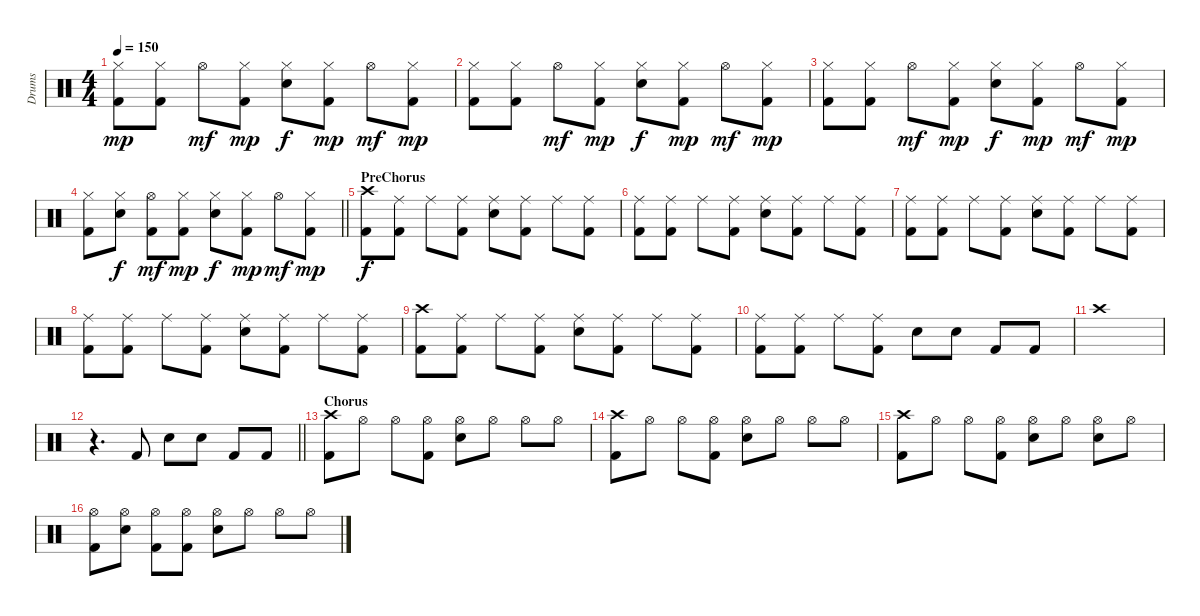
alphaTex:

\track ("Drums" "Drums") {instrument percussion}
\staff {score}
\articulation defaults
\ts (4 4)
\tempo 150
\clef neutral
\ks c
("Hi-Hat (closed)" "Kick (hit) 2").8{dy mp} ("Hi-Hat (closed)" "Kick (hit) 2").8 "Hi-Hat (open)".8{dy mf} ("Hi-Hat (closed)" "Kick (hit) 2").8{dy mp} ("Hi-Hat (closed)" "Electric Snare (hit)").8{dy f} ("Hi-Hat (closed)" "Kick (hit) 2").8{dy mp} "Hi-Hat (open)".8{dy mf} ("Hi-Hat (closed)" "Kick (hit) 2").8{dy mp} |
("Hi-Hat (closed)" "Kick (hit) 2").8 ("Hi-Hat (closed)" "Kick (hit) 2").8 "Hi-Hat (open)".8{dy mf} ("Hi-Hat (closed)" "Kick (hit) 2").8{dy mp} ("Hi-Hat (closed)" "Electric Snare (hit)").8{dy f} ("Hi-Hat (closed)" "Kick (hit) 2").8{dy mp} "Hi-Hat (open)".8{dy mf} ("Hi-Hat (closed)" "Kick (hit) 2").8{dy mp} |
("Hi-Hat (closed)" "Kick (hit) 2").8 ("Hi-Hat (closed)" "Kick (hit) 2").8 "Hi-Hat (open)".8{dy mf} ("Hi-Hat (closed)" "Kick (hit) 2").8{dy mp} ("Hi-Hat (closed)" "Electric Snare (hit)").8{dy f} ("Hi-Hat (closed)" "Kick (hit) 2").8{dy mp} "Hi-Hat (open)".8{dy mf} ("Hi-Hat (closed)" "Kick (hit) 2").8{dy mp} |
\barLineRight lightlight
("Hi-Hat (closed)" "Kick (hit) 2").8 ("Hi-Hat (closed)" "Electric Snare (hit)").8{dy f} ("Hi-Hat (open)" "Kick (hit) 2").8{dy mf} ("Hi-Hat (closed)" "Kick (hit) 2").8{dy mp} ("Hi-Hat (closed)" "Electric Snare (hit)").8{dy f} ("Hi-Hat (closed)" "Kick (hit) 2").8{dy mp} "Hi-Hat (open)".8{dy mf} ("Hi-Hat (closed)" "Kick (hit) 2").8{dy mp} |
\section ("" "PreChorus")
("Crash high (hit)" "Kick (hit) 2").8{dy f} ("Ride (middle)" "Kick (hit) 2").8 "Ride (middle)".8 ("Ride (middle)" "Kick (hit) 2").8 ("Ride (middle)" "Electric Snare (hit)").8 ("Ride (middle)" "Kick (hit) 2").8 "Ride (middle)".8 ("Ride (middle)" "Kick (hit) 2").8 |
("Ride (middle)" "Kick (hit) 2").8 ("Ride (middle)" "Kick (hit) 2").8 "Ride (middle)".8 ("Ride (middle)" "Kick (hit) 2").8 ("Ride (middle)" "Electric Snare (hit)").8 ("Ride (middle)" "Kick (hit) 2").8 "Ride (middle)".8 ("Ride (middle)" "Kick (hit) 2").8 |
("Ride (middle)" "Kick (hit) 2").8 ("Ride (middle)" "Kick (hit) 2").8 "Ride (middle)".8 ("Ride (middle)" "Kick (hit) 2").8 ("Ride (middle)" "Electric Snare (hit)").8 ("Ride (middle)" "Kick (hit) 2").8 "Ride (middle)".8 ("Ride (middle)" "Kick (hit) 2").8 |
("Ride (middle)" "Kick (hit) 2").8 ("Ride (middle)" "Kick (hit) 2").8 "Ride (middle)".8 ("Ride (middle)" "Kick (hit) 2").8 ("Ride (middle)" "Electric Snare (hit)").8 ("Ride (middle)" "Kick (hit) 2").8 "Ride (middle)".8 ("Ride (middle)" "Kick (hit) 2").8 |
("Crash high (hit)" "Kick (hit) 2").8 ("Ride (middle)" "Kick (hit) 2").8 "Ride (middle)".8 ("Ride (middle)" "Kick (hit) 2").8 ("Ride (middle)" "Electric Snare (hit)").8 ("Ride (middle)" "Kick (hit) 2").8 "Ride (middle)".8 ("Ride (middle)" "Kick (hit) 2").8 |
("Ride (middle)" "Kick (hit) 2").8 ("Ride (middle)" "Kick (hit) 2").8 "Ride (middle)".8 ("Ride (middle)" "Kick (hit) 2").8 "Electric Snare (hit)".8 "Electric Snare (hit)".8 "Kick (hit) 2".8 "Kick (hit) 2".8 |
"Crash high (hit)".1 |
\barLineRight lightlight
r.4{d} "Kick (hit) 2".8 "Electric Snare (hit)".8 "Electric Snare (hit)".8 "Kick (hit) 2".8 "Kick (hit) 2".8 |
\section ("" "Chorus")
("Crash high (hit)" "Kick (hit) 2").8 "Hi-Hat (open)".8 "Hi-Hat (open)".8 ("Hi-Hat (open)" "Kick (hit) 2").8 ("Hi-Hat (open)" "Electric Snare (hit)").8 "Hi-Hat (open)".8 "Hi-Hat (open)".8 "Hi-Hat (open)".8 |
("Crash high (hit)" "Kick (hit) 2").8 "Hi-Hat (open)".8 "Hi-Hat (open)".8 ("Hi-Hat (open)" "Kick (hit) 2").8 ("Hi-Hat (open)" "Electric Snare (hit)").8 "Hi-Hat (open)".8 "Hi-Hat (open)".8 "Hi-Hat (open)".8 |
("Crash high (hit)" "Kick (hit) 2").8 "Hi-Hat (open)".8 "Hi-Hat (open)".8 ("Hi-Hat (open)" "Kick (hit) 2").8 ("Hi-Hat (open)" "Electric Snare (hit)").8 "Hi-Hat (open)".8 ("Hi-Hat (open)" "Electric Snare (hit)").8 "Hi-Hat (open)".8 |
("Hi-Hat (open)" "Kick (hit) 2").8 ("Hi-Hat (open)" "Electric Snare (hit)").8 ("Hi-Hat (open)" "Kick (hit) 2").8 ("Hi-Hat (open)" "Kick (hit) 2").8 ("Hi-Hat (open)" "Electric Snare (hit)").8 "Hi-Hat (open)".8 "Hi-Hat (open)".8 "Hi-Hat (open)".8
